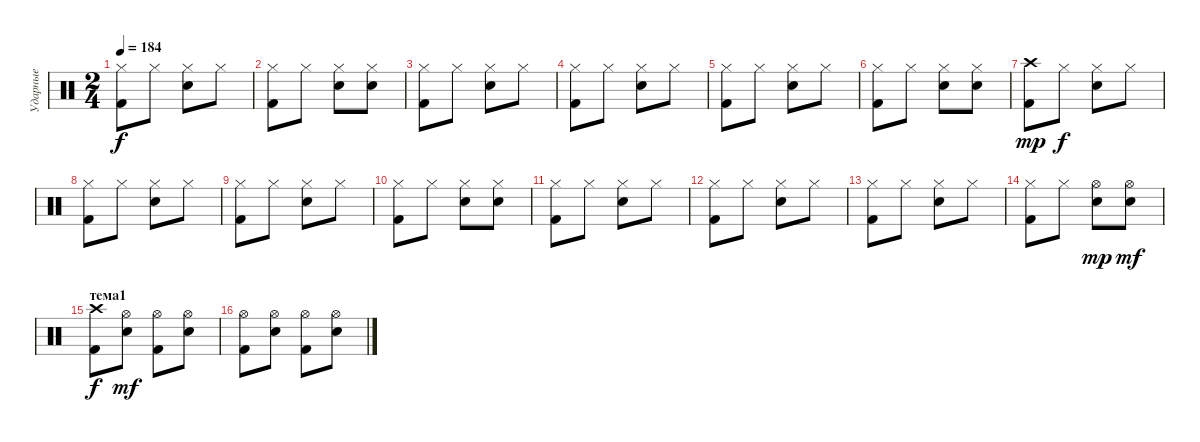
\track ("Ударные" "Ударные") {instrument percussion}
\staff {score}
\articulation defaults
\ts (2 4)
\tempo 184
\clef neutral
\ks c
("Hi-Hat (closed)" "Kick (hit) 2").8{dy f} "Hi-Hat (closed)".8 ("Hi-Hat (closed)" "Snare (hit) 2").8 "Hi-Hat (closed)".8 |
("Hi-Hat (closed)" "Kick (hit) 2").8 "Hi-Hat (closed)".8 ("Hi-Hat (closed)" "Snare (hit) 2").8 ("Hi-Hat (closed)" "Snare (hit) 2").8 |
("Hi-Hat (closed)" "Kick (hit) 2").8 "Hi-Hat (closed)".8 ("Hi-Hat (closed)" "Snare (hit) 2").8 "Hi-Hat (closed)".8 |
("Hi-Hat (closed)" "Kick (hit) 2").8 "Hi-Hat (closed)".8 ("Hi-Hat (closed)" "Snare (hit) 2").8 "Hi-Hat (closed)".8 |
("Hi-Hat (closed)" "Kick (hit) 2").8 "Hi-Hat (closed)".8 ("Hi-Hat (closed)" "Snare (hit) 2").8 "Hi-Hat (closed)".8 |
("Hi-Hat (closed)" "Kick (hit) 2").8 "Hi-Hat (closed)".8 ("Hi-Hat (closed)" "Snare (hit) 2").8 ("Hi-Hat (closed)" "Snare (hit) 2").8 |
("Crash high (hit)" "Kick (hit) 2").8{dy mp} "Hi-Hat (closed)".8{dy f} ("Hi-Hat (closed)" "Snare (hit) 2").8 "Hi-Hat (closed)".8 |
("Hi-Hat (closed)" "Kick (hit) 2").8 "Hi-Hat (closed)".8 ("Hi-Hat (closed)" "Snare (hit) 2").8 "Hi-Hat (closed)".8 |
("Hi-Hat (closed)" "Kick (hit) 2").8 "Hi-Hat (closed)".8 ("Hi-Hat (closed)" "Snare (hit) 2").8 "Hi-Hat (closed)".8 |
("Hi-Hat (closed)" "Kick (hit) 2").8 "Hi-Hat (closed)".8 ("Hi-Hat (closed)" "Snare (hit) 2").8 ("Hi-Hat (closed)" "Snare (hit) 2").8 |
("Hi-Hat (closed)" "Kick (hit) 2").8 "Hi-Hat (closed)".8 ("Hi-Hat (closed)" "Snare (hit) 2").8 "Hi-Hat (closed)".8 |
("Hi-Hat (closed)" "Kick (hit) 2").8 "Hi-Hat (closed)".8 ("Hi-Hat (closed)" "Snare (hit) 2").8 "Hi-Hat (closed)".8 |
("Hi-Hat (closed)" "Kick (hit) 2").8 "Hi-Hat (closed)".8 ("Hi-Hat (closed)" "Snare (hit) 2").8 "Hi-Hat (closed)".8 |
("Hi-Hat (closed)" "Kick (hit) 2").8 "Hi-Hat (closed)".8 ("Hi-Hat (open)" "Snare (hit) 2").8{dy mp} ("Hi-Hat (open)" "Snare (hit) 2").8{dy mf} |
\section ("" "тема1")
("Kick (hit) 2" "Crash high (hit)").8{dy f} ("Snare (hit) 2" "Hi-Hat (open)").8{dy mf} ("Kick (hit) 2" "Hi-Hat (open)").8 ("Snare (hit) 2" "Hi-Hat (open)").8 |
("Kick (hit) 2" "Hi-Hat (open)").8 ("Snare (hit) 2" "Hi-Hat (open)").8 ("Kick (hit) 2" "Hi-Hat (open)").8 ("Snare (hit) 2" "Hi-Hat (open)").8
